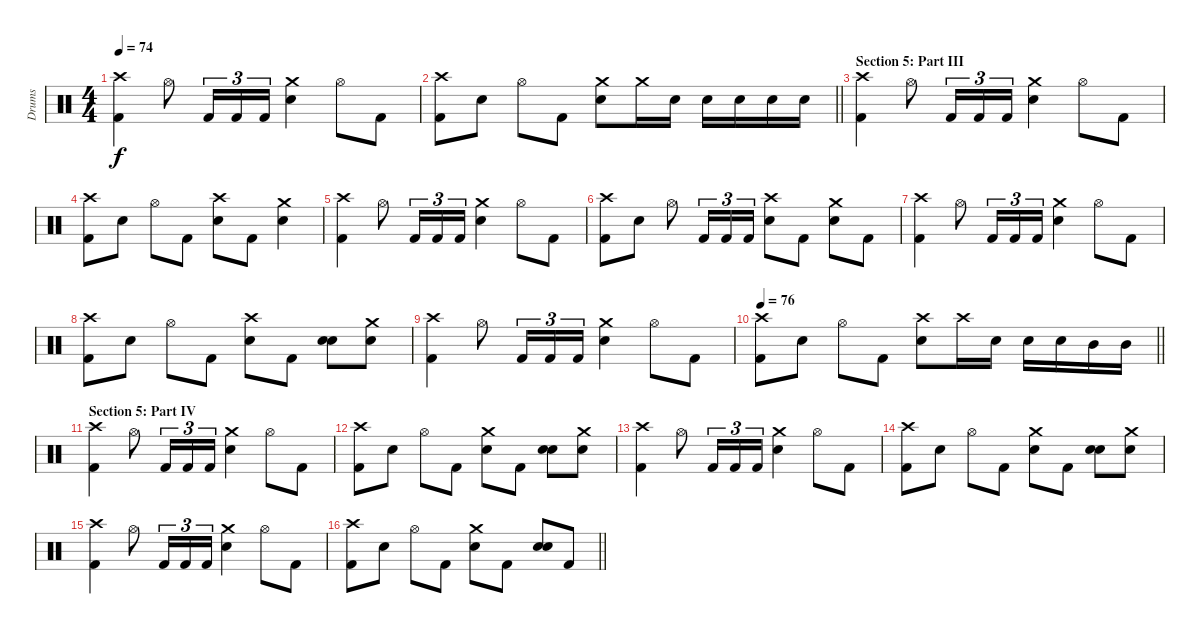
\track ("Drums" "Drums") {instrument percussion}
\staff {score}
\articulation defaults
\ts (4 4)
\tempo 74
\clef neutral
\ks c
("Crash high (hit)" "Kick (hit) 2").4{dy f} "Hi-Hat (open)".8 "Kick (hit) 2".16{tu (3 2)} "Kick (hit) 2".16{tu (3 2)} "Kick (hit) 2".16{tu (3 2)} ("Crash medium (hit)" "Electric Snare (hit)").4 "Hi-Hat (open)".8 "Kick (hit) 2".8 |
\barLineRight lightlight
("Crash high (hit)" "Kick (hit) 2").8 "Electric Snare (hit)".8 "Hi-Hat (open)".8 "Kick (hit) 2".8 ("Crash medium (hit)" "Electric Snare (hit)").8 "Crash medium (hit)".16 "Electric Snare (hit)".16 "Electric Snare (hit)".16 "Electric Snare (hit)".16 "Electric Snare (hit)".16 "Electric Snare (hit)".16 |
\section ("" "Section 5: Part III")
("Crash high (hit)" "Kick (hit) 2").4 "Hi-Hat (open)".8 "Kick (hit) 2".16{tu (3 2)} "Kick (hit) 2".16{tu (3 2)} "Kick (hit) 2".16{tu (3 2)} ("Crash medium (hit)" "Electric Snare (hit)").4 "Hi-Hat (open)".8 "Kick (hit) 2".8 |
("Crash high (hit)" "Kick (hit) 2").8 "Electric Snare (hit)".8 "Hi-Hat (open)".8 "Kick (hit) 2".8 ("Crash high (hit)" "Electric Snare (hit)").8 "Kick (hit) 2".8 ("Crash medium (hit)" "Electric Snare (hit)").4 |
("Crash high (hit)" "Kick (hit) 2").4 "Hi-Hat (open)".8 "Kick (hit) 2".16{tu (3 2)} "Kick (hit) 2".16{tu (3 2)} "Kick (hit) 2".16{tu (3 2)} ("Crash medium (hit)" "Electric Snare (hit)").4 "Hi-Hat (open)".8 "Kick (hit) 2".8 |
("Crash high (hit)" "Kick (hit) 2").8 "Electric Snare (hit)".8 "Hi-Hat (open)".8 "Kick (hit) 2".16{tu (3 2)} "Kick (hit) 2".16{tu (3 2)} "Kick (hit) 2".16{tu (3 2)} ("Crash high (hit)" "Electric Snare (hit)").8 "Kick (hit) 2".8 ("Crash medium (hit)" "Electric Snare (hit)").8 "Kick (hit) 2".8 |
("Crash high (hit)" "Kick (hit) 2").4 "Hi-Hat (open)".8 "Kick (hit) 2".16{tu (3 2)} "Kick (hit) 2".16{tu (3 2)} "Kick (hit) 2".16{tu (3 2)} ("Crash medium (hit)" "Electric Snare (hit)").4 "Hi-Hat (open)".8 "Kick (hit) 2".8 |
("Crash high (hit)" "Kick (hit) 2").8 "Electric Snare (hit)".8 "Hi-Hat (open)".8 "Kick (hit) 2".8 ("Crash high (hit)" "Electric Snare (hit)").8 "Kick (hit) 2".8 ("Electric Snare (hit)" "Electric Snare (hit)").8{bu 60} ("Crash medium (hit)" "Electric Snare (hit)").8 |
("Crash high (hit)" "Kick (hit) 2").4 "Hi-Hat (open)".8 "Kick (hit) 2".16{tu (3 2)} "Kick (hit) 2".16{tu (3 2)} "Kick (hit) 2".16{tu (3 2)} ("Crash medium (hit)" "Electric Snare (hit)").4 "Hi-Hat (open)".8 "Kick (hit) 2".8 |
\tempo 76
\barLineRight lightlight
("Crash high (hit)" "Kick (hit) 2").8 "Electric Snare (hit)".8 "Hi-Hat (open)".8 "Kick (hit) 2".8 ("Crash high (hit)" "Electric Snare (hit)").8 "Crash high (hit)".16 "Electric Snare (hit)".16 "Electric Snare (hit)".16 "Electric Snare (hit)".16 "Mid Tom (hit)".16 "Mid Tom (hit)".16 |
\section ("" "Section 5: Part IV")
("Crash high (hit)" "Kick (hit) 2").4 "Hi-Hat (open)".8 "Kick (hit) 2".16{tu (3 2)} "Kick (hit) 2".16{tu (3 2)} "Kick (hit) 2".16{tu (3 2)} ("Crash medium (hit)" "Electric Snare (hit)").4 "Hi-Hat (open)".8 "Kick (hit) 2".8 |
("Crash high (hit)" "Kick (hit) 2").8 "Electric Snare (hit)".8 "Hi-Hat (open)".8 "Kick (hit) 2".8 ("Crash medium (hit)" "Electric Snare (hit)").8 "Kick (hit) 2".8 ("Electric Snare (hit)" "Electric Snare (hit)").8{bu 60} ("Crash medium (hit)" "Electric Snare (hit)").8 |
("Crash high (hit)" "Kick (hit) 2").4 "Hi-Hat (open)".8 "Kick (hit) 2".16{tu (3 2)} "Kick (hit) 2".16{tu (3 2)} "Kick (hit) 2".16{tu (3 2)} ("Crash medium (hit)" "Electric Snare (hit)").4 "Hi-Hat (open)".8 "Kick (hit) 2".8 |
("Crash high (hit)" "Kick (hit) 2").8 "Electric Snare (hit)".8 "Hi-Hat (open)".8 "Kick (hit) 2".8 ("Crash medium (hit)" "Electric Snare (hit)").8 "Kick (hit) 2".8 ("Electric Snare (hit)" "Electric Snare (hit)").8{bu 60} ("Crash medium (hit)" "Electric Snare (hit)").8 |
("Crash high (hit)" "Kick (hit) 2").4 "Hi-Hat (open)".8 "Kick (hit) 2".16{tu (3 2)} "Kick (hit) 2".16{tu (3 2)} "Kick (hit) 2".16{tu (3 2)} ("Crash medium (hit)" "Electric Snare (hit)").4 "Hi-Hat (open)".8 "Kick (hit) 2".8 |
\barLineRight lightlight
("Crash high (hit)" "Kick (hit) 2").8 "Electric Snare (hit)".8 "Hi-Hat (open)".8 "Kick (hit) 2".8 ("Crash medium (hit)" "Electric Snare (hit)").8 "Kick (hit) 2".8 ("Electric Snare (hit)" "Electric Snare (hit)").8{bu 60} "Kick (hit) 2".8
